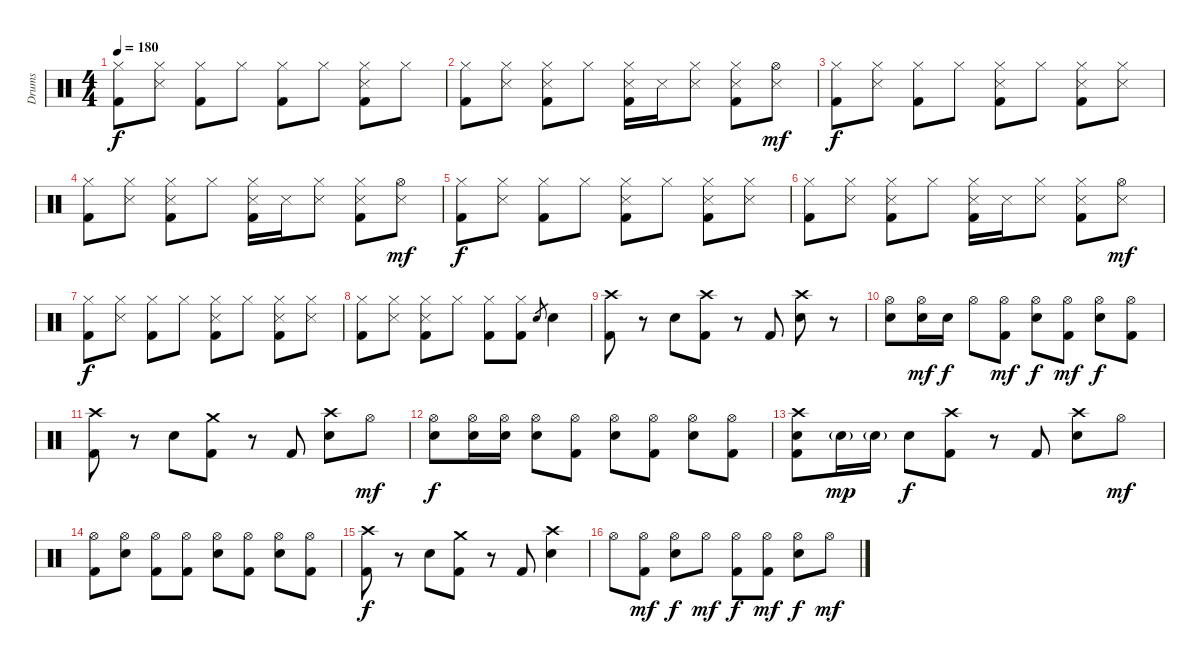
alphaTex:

\track ("Drums" "Drums") {instrument percussion}
\staff {score}
\articulation defaults
\ts (4 4)
\tempo 180
\clef neutral
\ks c
("Hi-Hat (closed)" "Kick (hit) 2").8{dy f} ("Hi-Hat (closed)" "Snare (side stick) 3").8 ("Hi-Hat (closed)" "Kick (hit) 2").8 "Hi-Hat (closed)".8 ("Hi-Hat (closed)" "Kick (hit) 2").8 "Hi-Hat (closed)".8 ("Hi-Hat (closed)" "Snare (side stick) 3" "Kick (hit) 2").8 "Hi-Hat (closed)".8 |
("Hi-Hat (closed)" "Kick (hit) 2").8 ("Hi-Hat (closed)" "Snare (side stick) 3").8 ("Hi-Hat (closed)" "Snare (side stick) 3" "Kick (hit) 2").8 "Hi-Hat (closed)".8 ("Hi-Hat (closed)" "Snare (side stick) 3" "Kick (hit) 2").16 "Snare (side stick) 3".16 ("Hi-Hat (closed)" "Snare (side stick) 3").8 ("Hi-Hat (closed)" "Snare (side stick) 3" "Kick (hit) 2").8 ("Hi-Hat (open)" "Snare (side stick) 3").8{dy mf} |
("Hi-Hat (closed)" "Kick (hit) 2").8{dy f} ("Hi-Hat (closed)" "Snare (side stick) 3").8 ("Hi-Hat (closed)" "Kick (hit) 2").8 "Hi-Hat (closed)".8 ("Hi-Hat (closed)" "Snare (side stick) 3" "Kick (hit) 2").8 "Hi-Hat (closed)".8 ("Hi-Hat (closed)" "Snare (side stick) 3" "Kick (hit) 2").8 ("Hi-Hat (closed)" "Snare (side stick) 3").8 |
("Hi-Hat (closed)" "Kick (hit) 2").8 ("Hi-Hat (closed)" "Snare (side stick) 3").8 ("Hi-Hat (closed)" "Snare (side stick) 3" "Kick (hit) 2").8 "Hi-Hat (closed)".8 ("Hi-Hat (closed)" "Snare (side stick) 3" "Kick (hit) 2").16 "Snare (side stick) 3".16 ("Hi-Hat (closed)" "Snare (side stick) 3").8 ("Hi-Hat (closed)" "Snare (side stick) 3" "Kick (hit) 2").8 ("Hi-Hat (open)" "Snare (side stick) 3").8{dy mf} |
("Hi-Hat (closed)" "Kick (hit) 2").8{dy f} ("Hi-Hat (closed)" "Snare (side stick) 3").8 ("Hi-Hat (closed)" "Kick (hit) 2").8 "Hi-Hat (closed)".8 ("Hi-Hat (closed)" "Snare (side stick) 3" "Kick (hit) 2").8 "Hi-Hat (closed)".8 ("Hi-Hat (closed)" "Snare (side stick) 3" "Kick (hit) 2").8 ("Hi-Hat (closed)" "Snare (side stick) 3").8 |
("Hi-Hat (closed)" "Kick (hit) 2").8 ("Hi-Hat (closed)" "Snare (side stick) 3").8 ("Hi-Hat (closed)" "Snare (side stick) 3" "Kick (hit) 2").8 "Hi-Hat (closed)".8 ("Hi-Hat (closed)" "Snare (side stick) 3" "Kick (hit) 2").16 "Snare (side stick) 3".16 ("Hi-Hat (closed)" "Snare (side stick) 3").8 ("Hi-Hat (closed)" "Snare (side stick) 3" "Kick (hit) 2").8 ("Hi-Hat (open)" "Snare (side stick) 3").8{dy mf} |
("Hi-Hat (closed)" "Kick (hit) 2").8{dy f} ("Hi-Hat (closed)" "Snare (side stick) 3").8 ("Hi-Hat (closed)" "Kick (hit) 2").8 "Hi-Hat (closed)".8 ("Hi-Hat (closed)" "Snare (side stick) 3" "Kick (hit) 2").8 "Hi-Hat (closed)".8 ("Hi-Hat (closed)" "Snare (side stick) 3" "Kick (hit) 2").8 ("Hi-Hat (closed)" "Snare (side stick) 3").8 |
("Hi-Hat (closed)" "Kick (hit) 2").8 ("Hi-Hat (closed)" "Snare (side stick) 3").8 ("Hi-Hat (closed)" "Snare (side stick) 3" "Kick (hit) 2").8 "Hi-Hat (closed)".8 ("Hi-Hat (closed)" "Kick (hit) 2").8 ("Hi-Hat (closed)" "Kick (hit) 2").8 "Electric Snare (hit)".8{gr} "Electric Snare (hit)".4 |
("Crash high (hit)" "Kick (hit) 2").8 r.8 "Electric Snare (hit)".8 ("Crash high (hit)" "Kick (hit) 2").8 r.8 "Kick (hit) 2".8 ("Crash high (hit)" "Electric Snare (hit)").8 r.8 |
("Hi-Hat (open)" "Electric Snare (hit)").8 ("Hi-Hat (open)" "Electric Snare (hit)").16{dy mf} "Electric Snare (hit)".16{dy f} "Hi-Hat (open)".8 ("Hi-Hat (open)" "Kick (hit) 2").8{dy mf} ("Hi-Hat (open)" "Electric Snare (hit)").8{dy f} ("Hi-Hat (open)" "Kick (hit) 2").8{dy mf} ("Hi-Hat (open)" "Electric Snare (hit)").8{dy f} ("Hi-Hat (open)" "Kick (hit) 2").8 |
("Crash high (hit)" "Kick (hit) 2").8 r.8 "Electric Snare (hit)".8 ("Crash medium (hit)" "Kick (hit) 2").8 r.8 "Kick (hit) 2".8 ("Crash high (hit)" "Electric Snare (hit)").8 "Hi-Hat (open)".8{dy mf} |
("Hi-Hat (open)" "Electric Snare (hit)").8{dy f} ("Hi-Hat (open)" "Electric Snare (hit)").16 ("Hi-Hat (open)" "Electric Snare (hit)").16 ("Hi-Hat (open)" "Electric Snare (hit)").8 ("Hi-Hat (open)" "Kick (hit) 2").8 ("Hi-Hat (open)" "Electric Snare (hit)").8 ("Hi-Hat (open)" "Kick (hit) 2").8 ("Hi-Hat (open)" "Electric Snare (hit)").8 ("Hi-Hat (open)" "Kick (hit) 2").8 |
("Crash high (hit)" "Electric Snare (hit)" "Kick (hit) 2").8 "Electric Snare (hit)"{g}.16{dy mp} "Electric Snare (hit)"{g}.16 "Electric Snare (hit)".8{dy f} ("Crash high (hit)" "Kick (hit) 2").8 r.8 "Kick (hit) 2".8 ("Crash high (hit)" "Electric Snare (hit)").8 "Hi-Hat (open)".8{dy mf} |
("Hi-Hat (open)" "Kick (hit) 2").8 ("Hi-Hat (open)" "Electric Snare (hit)").8 ("Hi-Hat (open)" "Kick (hit) 2").8 ("Hi-Hat (open)" "Kick (hit) 2").8 ("Hi-Hat (open)" "Electric Snare (hit)").8 ("Hi-Hat (open)" "Kick (hit) 2").8 ("Hi-Hat (open)" "Electric Snare (hit)").8 ("Hi-Hat (open)" "Kick (hit) 2").8 |
("Crash high (hit)" "Kick (hit) 2").8{dy f} r.8 "Electric Snare (hit)".8 ("Crash medium (hit)" "Kick (hit) 2").8 r.8 "Kick (hit) 2".8 ("Crash high (hit)" "Electric Snare (hit)").4 |
"Hi-Hat (open)".8 ("Hi-Hat (open)" "Kick (hit) 2").8{dy mf} ("Hi-Hat (open)" "Electric Snare (hit)").8{dy f} "Hi-Hat (open)".8{dy mf} ("Hi-Hat (open)" "Kick (hit) 2").8{dy f} ("Hi-Hat (open)" "Kick (hit) 2").8{dy mf} ("Hi-Hat (open)" "Electric Snare (hit)").8{dy f} "Hi-Hat (open)".8{dy mf}
